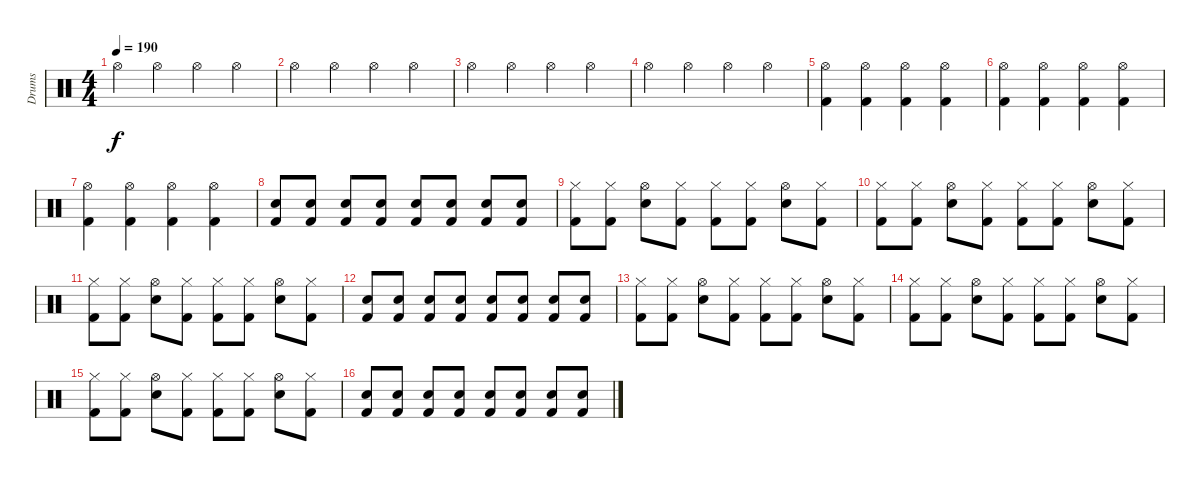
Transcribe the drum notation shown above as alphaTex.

\track ("Drums" "Drums") {instrument percussion}
\staff {score}
\articulation defaults
\ts (4 4)
\tempo 190
\clef neutral
\ks c "Hi-Hat (open)".4{dy f} "Hi-Hat (open)".4 "Hi-Hat (open)".4 "Hi-Hat (open)".4
|
"Hi-Hat (open)".4 "Hi-Hat (open)".4 "Hi-Hat (open)".4 "Hi-Hat (open)".4 |
"Hi-Hat (open)".4 "Hi-Hat (open)".4 "Hi-Hat (open)".4 "Hi-Hat (open)".4 |
"Hi-Hat (open)".4 "Hi-Hat (open)".4 "Hi-Hat (open)".4 "Hi-Hat (open)".4 |
("Hi-Hat (open)" "Kick (hit) 2").4 ("Hi-Hat (open)" "Kick (hit) 2").4 ("Hi-Hat (open)" "Kick (hit) 2").4 ("Hi-Hat (open)" "Kick (hit) 2").4 |
("Hi-Hat (open)" "Kick (hit) 2").4 ("Hi-Hat (open)" "Kick (hit) 2").4 ("Hi-Hat (open)" "Kick (hit) 2").4 ("Hi-Hat (open)" "Kick (hit) 2").4 |
("Hi-Hat (open)" "Kick (hit) 2").4 ("Hi-Hat (open)" "Kick (hit) 2").4 ("Hi-Hat (open)" "Kick (hit) 2").4 ("Hi-Hat (open)" "Kick (hit) 2").4 |
("Snare (hit) 2" "Kick (hit) 2").8 ("Snare (hit) 2" "Kick (hit) 2").8 ("Snare (hit) 2" "Kick (hit) 2").8 ("Snare (hit) 2" "Kick (hit) 2").8 ("Snare (hit) 2" "Kick (hit) 2").8 ("Snare (hit) 2" "Kick (hit) 2").8 ("Snare (hit) 2" "Kick (hit) 2").8 ("Snare (hit) 2" "Kick (hit) 2").8 |
("Hi-Hat (closed)" "Kick (hit) 2").8 ("Hi-Hat (closed)" "Kick (hit) 2").8 ("Hi-Hat (open)" "Snare (hit) 2").8 ("Hi-Hat (closed)" "Kick (hit) 2").8 ("Hi-Hat (closed)" "Kick (hit) 2").8 ("Hi-Hat (closed)" "Kick (hit) 2").8 ("Hi-Hat (open)" "Snare (hit) 2").8 ("Hi-Hat (closed)" "Kick (hit) 2").8 |
("Hi-Hat (closed)" "Kick (hit) 2").8 ("Hi-Hat (closed)" "Kick (hit) 2").8 ("Hi-Hat (open)" "Snare (hit) 2").8 ("Hi-Hat (closed)" "Kick (hit) 2").8 ("Hi-Hat (closed)" "Kick (hit) 2").8 ("Hi-Hat (closed)" "Kick (hit) 2").8 ("Hi-Hat (open)" "Snare (hit) 2").8 ("Hi-Hat (closed)" "Kick (hit) 2").8 |
("Hi-Hat (closed)" "Kick (hit) 2").8 ("Hi-Hat (closed)" "Kick (hit) 2").8 ("Hi-Hat (open)" "Snare (hit) 2").8 ("Hi-Hat (closed)" "Kick (hit) 2").8 ("Hi-Hat (closed)" "Kick (hit) 2").8 ("Hi-Hat (closed)" "Kick (hit) 2").8 ("Hi-Hat (open)" "Snare (hit) 2").8 ("Hi-Hat (closed)" "Kick (hit) 2").8 |
("Snare (hit) 2" "Kick (hit) 2").8 ("Snare (hit) 2" "Kick (hit) 2").8 ("Snare (hit) 2" "Kick (hit) 2").8 ("Snare (hit) 2" "Kick (hit) 2").8 ("Snare (hit) 2" "Kick (hit) 2").8 ("Snare (hit) 2" "Kick (hit) 2").8 ("Snare (hit) 2" "Kick (hit) 2").8 ("Snare (hit) 2" "Kick (hit) 2").8 |
("Hi-Hat (closed)" "Kick (hit) 2").8 ("Hi-Hat (closed)" "Kick (hit) 2").8 ("Hi-Hat (open)" "Snare (hit) 2").8 ("Hi-Hat (closed)" "Kick (hit) 2").8 ("Hi-Hat (closed)" "Kick (hit) 2").8 ("Hi-Hat (closed)" "Kick (hit) 2").8 ("Hi-Hat (open)" "Snare (hit) 2").8 ("Hi-Hat (closed)" "Kick (hit) 2").8 |
("Hi-Hat (closed)" "Kick (hit) 2").8 ("Hi-Hat (closed)" "Kick (hit) 2").8 ("Hi-Hat (open)" "Snare (hit) 2").8 ("Hi-Hat (closed)" "Kick (hit) 2").8 ("Hi-Hat (closed)" "Kick (hit) 2").8 ("Hi-Hat (closed)" "Kick (hit) 2").8 ("Hi-Hat (open)" "Snare (hit) 2").8 ("Hi-Hat (closed)" "Kick (hit) 2").8 |
("Hi-Hat (closed)" "Kick (hit) 2").8 ("Hi-Hat (closed)" "Kick (hit) 2").8 ("Hi-Hat (open)" "Snare (hit) 2").8 ("Hi-Hat (closed)" "Kick (hit) 2").8 ("Hi-Hat (closed)" "Kick (hit) 2").8 ("Hi-Hat (closed)" "Kick (hit) 2").8 ("Hi-Hat (open)" "Snare (hit) 2").8 ("Hi-Hat (closed)" "Kick (hit) 2").8 |
("Snare (hit) 2" "Kick (hit) 2").8 ("Snare (hit) 2" "Kick (hit) 2").8 ("Snare (hit) 2" "Kick (hit) 2").8 ("Snare (hit) 2" "Kick (hit) 2").8 ("Snare (hit) 2" "Kick (hit) 2").8 ("Snare (hit) 2" "Kick (hit) 2").8 ("Snare (hit) 2" "Kick (hit) 2").8 ("Snare (hit) 2" "Kick (hit) 2").8
